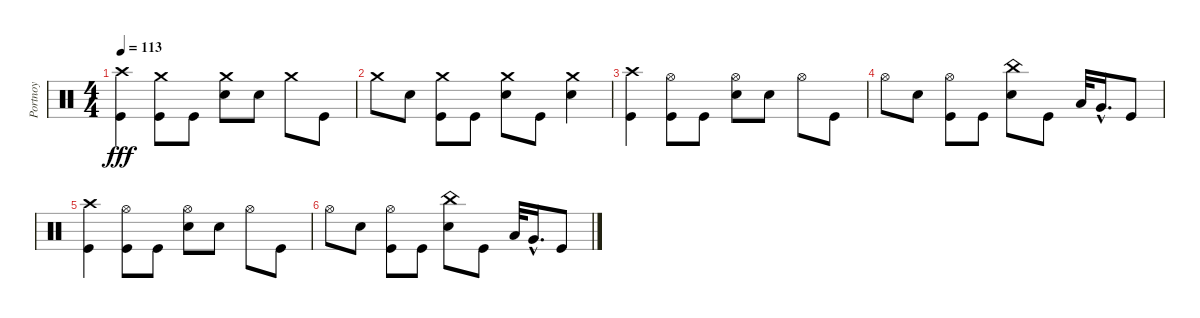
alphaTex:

\track ("Portnoy" "Portnoy") {instrument percussion}
\staff {score}
\articulation defaults
\ts (4 4)
\tempo 113
\clef neutral
\ks c
("Crash high (hit)" "Kick (hit)").4{dy fff} ("Crash medium (hit)" "Kick (hit)").8 "Kick (hit)".8 ("Crash medium (hit)" "Snare (hit) 2").8 "Snare (hit) 2".8 "Crash medium (hit)".8 "Kick (hit)".8 |
"Crash medium (hit)".8 "Snare (hit) 2".8 ("Crash medium (hit)" "Kick (hit)").8 "Kick (hit)".8 ("Crash medium (hit)" "Snare (hit) 2").8 "Kick (hit)".8 ("Crash medium (hit)" "Snare (hit) 2").4 |
("Crash high (hit)" "Kick (hit)").4 ("Hi-Hat (open)" "Kick (hit)").8 "Kick (hit)".8 ("Hi-Hat (open)" "Snare (hit) 2").8 "Snare (hit) 2".8 "Hi-Hat (open)".8 "Kick (hit)".8 |
"Hi-Hat (open)".8 "Snare (hit) 2".8 ("Hi-Hat (open)" "Kick (hit)").8 "Kick (hit)".8 ("China (hit)" "Snare (hit) 2").8 "Kick (hit)".8 "Low Floor Tom (hit)".32 "Very Low Tom (hit)"{hac}.16{d} "Kick (hit)".8 |
("Crash high (hit)" "Kick (hit)").4 ("Hi-Hat (open)" "Kick (hit)").8 "Kick (hit)".8 ("Hi-Hat (open)" "Snare (hit) 2").8 "Snare (hit) 2".8 "Hi-Hat (open)".8 "Kick (hit)".8 |
"Hi-Hat (open)".8 "Snare (hit) 2".8 ("Hi-Hat (open)" "Kick (hit)").8 "Kick (hit)".8 ("China (hit)" "Snare (hit) 2").8 "Kick (hit)".8 "Low Floor Tom (hit)".32 "Very Low Tom (hit)"{hac}.16{d} "Kick (hit)".8
